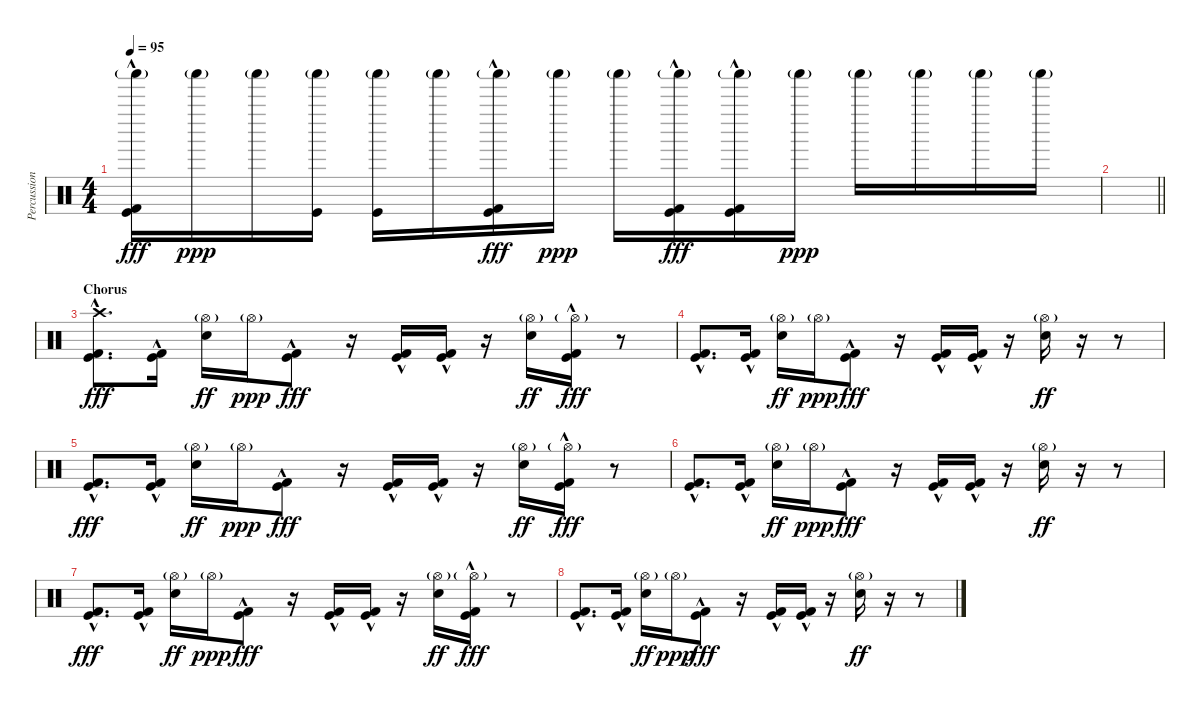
\track ("Percussion" "Percussion") {instrument percussion}
\staff {score}
\articulation defaults
\ts (4 4)
\tempo 95
\clef neutral
\ks c
("Shaker (hit)"{g} "Kick (hit) 2" "Kick (hit)"{hac}).16{dy fff} "Shaker (hit)"{g}.16{dy ppp} "Shaker (hit)"{g}.16 ("Shaker (hit)"{g} "Kick (hit)").16 ("Shaker (hit)"{g} "Kick (hit)").16 "Shaker (hit)"{g}.16 ("Shaker (hit)"{g} "Kick (hit) 2"{hac} "Kick (hit)"{hac}).16{dy fff} "Shaker (hit)"{g}.16{dy ppp} "Shaker (hit)"{g}.16 ("Shaker (hit)"{g} "Kick (hit) 2"{hac} "Kick (hit)"{hac}).16{dy fff} ("Shaker (hit)"{g} "Kick (hit) 2"{hac} "Kick (hit)"{hac}).16 "Shaker (hit)"{g}.16{dy ppp} "Shaker (hit)"{g}.16 "Shaker (hit)"{g}.16 "Shaker (hit)"{g}.16 "Shaker (hit)"{g}.16 |
\barLineRight lightlight
|
\section ("" "Chorus")
("Crash high (hit)" "Kick (hit) 2"{hac} "Kick (hit)"{hac}).8{d dy fff} ("Kick (hit) 2"{hac} "Kick (hit)"{hac}).16 ("Hi-Hat (open)"{g} "Electric Snare (hit)").16{dy ff} "Hi-Hat (open)"{g}.16{dy ppp} ("Kick (hit) 2"{hac} "Kick (hit)"{hac}).8{dy fff} r.16 ("Kick (hit) 2"{hac} "Kick (hit)"{hac}).16 ("Kick (hit) 2"{hac} "Kick (hit)"{hac}).16 r.16 ("Hi-Hat (open)"{g} "Electric Snare (hit)").16{dy ff} ("Hi-Hat (open)"{g} "Kick (hit) 2"{hac} "Kick (hit)"{hac}).16{dy fff} r.8 |
("Kick (hit) 2"{hac} "Kick (hit)"{hac}).8{d} ("Kick (hit) 2"{hac} "Kick (hit)"{hac}).16 ("Hi-Hat (open)"{g} "Electric Snare (hit)").16{dy ff} "Hi-Hat (open)"{g}.16{dy ppp} ("Kick (hit) 2"{hac} "Kick (hit)"{hac}).8{dy fff} r.16 ("Kick (hit) 2"{hac} "Kick (hit)"{hac}).16 ("Kick (hit) 2"{hac} "Kick (hit)"{hac}).16 r.16 ("Hi-Hat (open)"{g} "Electric Snare (hit)").16{dy ff} r.16 r.8 |
("Kick (hit) 2"{hac} "Kick (hit)"{hac}).8{d dy fff} ("Kick (hit) 2"{hac} "Kick (hit)"{hac}).16 ("Hi-Hat (open)"{g} "Electric Snare (hit)").16{dy ff} "Hi-Hat (open)"{g}.16{dy ppp} ("Kick (hit) 2"{hac} "Kick (hit)"{hac}).8{dy fff} r.16 ("Kick (hit) 2"{hac} "Kick (hit)"{hac}).16 ("Kick (hit) 2"{hac} "Kick (hit)"{hac}).16 r.16 ("Hi-Hat (open)"{g} "Electric Snare (hit)").16{dy ff} ("Hi-Hat (open)"{g} "Kick (hit) 2"{hac} "Kick (hit)"{hac}).16{dy fff} r.8 |
("Kick (hit) 2"{hac} "Kick (hit)"{hac}).8{d} ("Kick (hit) 2"{hac} "Kick (hit)"{hac}).16 ("Hi-Hat (open)"{g} "Electric Snare (hit)").16{dy ff} "Hi-Hat (open)"{g}.16{dy ppp} ("Kick (hit) 2"{hac} "Kick (hit)"{hac}).8{dy fff} r.16 ("Kick (hit) 2"{hac} "Kick (hit)"{hac}).16 ("Kick (hit) 2"{hac} "Kick (hit)"{hac}).16 r.16 ("Hi-Hat (open)"{g} "Electric Snare (hit)").16{dy ff} r.16 r.8 |
("Kick (hit) 2"{hac} "Kick (hit)"{hac}).8{d dy fff} ("Kick (hit) 2"{hac} "Kick (hit)"{hac}).16 ("Hi-Hat (open)"{g} "Electric Snare (hit)").16{dy ff} "Hi-Hat (open)"{g}.16{dy ppp} ("Kick (hit) 2"{hac} "Kick (hit)"{hac}).8{dy fff} r.16 ("Kick (hit) 2"{hac} "Kick (hit)"{hac}).16 ("Kick (hit) 2"{hac} "Kick (hit)"{hac}).16 r.16 ("Hi-Hat (open)"{g} "Electric Snare (hit)").16{dy ff} ("Hi-Hat (open)"{g} "Kick (hit) 2"{hac} "Kick (hit)"{hac}).16{dy fff} r.8 |
("Kick (hit) 2"{hac} "Kick (hit)"{hac}).8{d} ("Kick (hit) 2"{hac} "Kick (hit)"{hac}).16 ("Hi-Hat (open)"{g} "Electric Snare (hit)").16{dy ff} "Hi-Hat (open)"{g}.16{dy ppp} ("Kick (hit) 2"{hac} "Kick (hit)"{hac}).8{dy fff} r.16 ("Kick (hit) 2"{hac} "Kick (hit)"{hac}).16 ("Kick (hit) 2"{hac} "Kick (hit)"{hac}).16 r.16 ("Hi-Hat (open)"{g} "Electric Snare (hit)").16{dy ff} r.16 r.8
